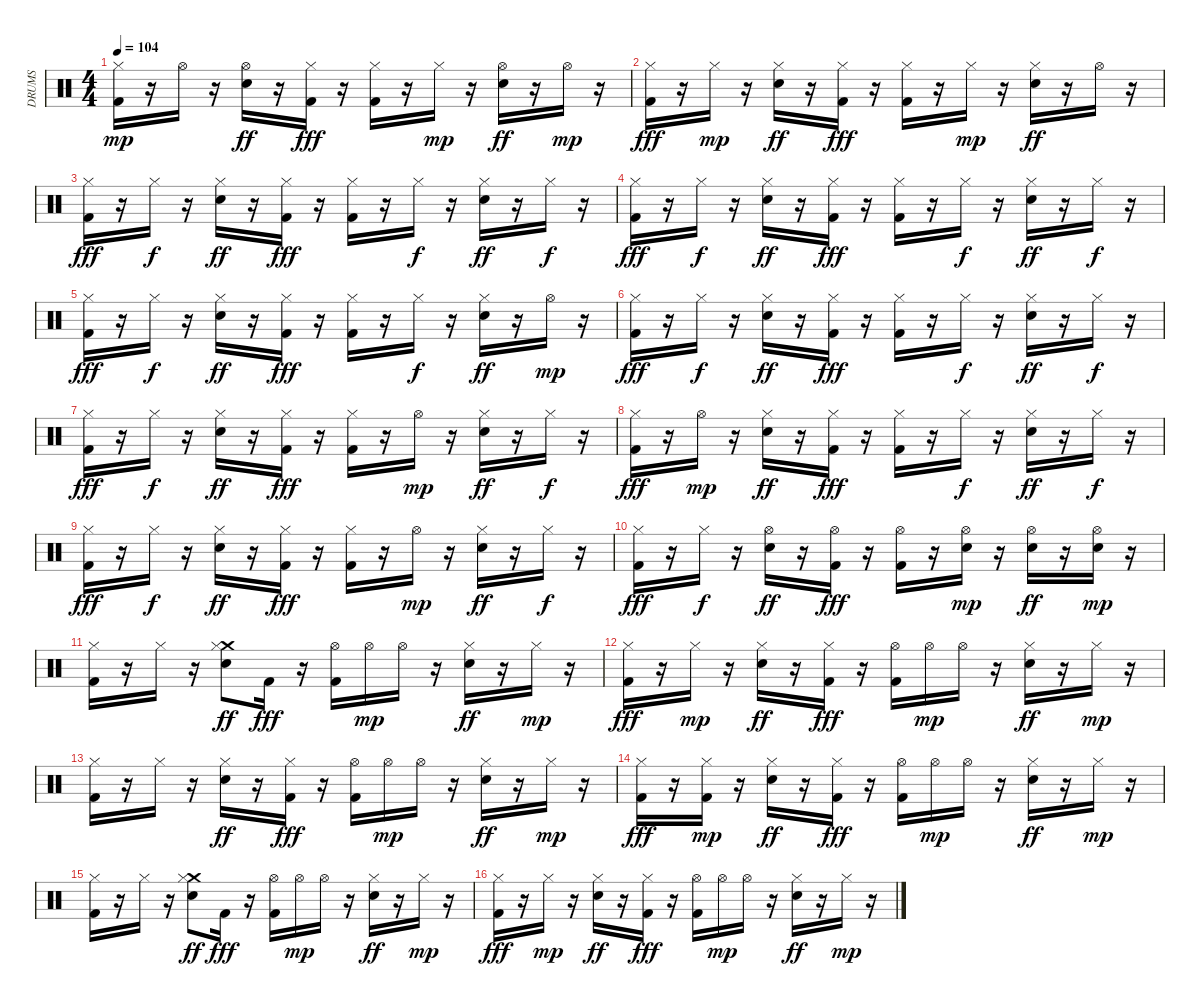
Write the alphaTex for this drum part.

\track ("DRUMS" "DRUMS") {instrument percussion}
\staff {score}
\articulation defaults
\ts (4 4)
\tempo 104
\clef neutral
\ks c
("Kick (hit) 2" "Hi-Hat (closed)").16{dy mp} r.16 "Hi-Hat (open)".16 r.16 ("Hi-Hat (open)" "Snare (hit) 2").16{dy ff} r.16 ("Hi-Hat (closed)" "Kick (hit) 2").16{dy fff} r.16 ("Hi-Hat (closed)" "Kick (hit) 2").16 r.16 "Hi-Hat (closed)".16{dy mp} r.16 ("Hi-Hat (open)" "Snare (hit) 2").16{dy ff} r.16 "Hi-Hat (open)".16{dy mp} r.16 |
("Hi-Hat (closed)" "Kick (hit) 2").16{dy fff} r.16 "Hi-Hat (closed)".16{dy mp} r.16 ("Hi-Hat (closed)" "Snare (hit) 2").16{dy ff} r.16 ("Hi-Hat (closed)" "Kick (hit) 2").16{dy fff} r.16 ("Hi-Hat (closed)" "Kick (hit) 2").16 r.16 "Hi-Hat (closed)".16{dy mp} r.16 ("Hi-Hat (closed)" "Snare (hit) 2").16{dy ff} r.16 "Hi-Hat (open)".16 r.16 |
("Kick (hit) 2" "Hi-Hat (closed)").16{dy fff} r.16 "Hi-Hat (closed)".16{dy f} r.16 ("Hi-Hat (closed)" "Snare (hit) 2").16{dy ff} r.16 ("Hi-Hat (closed)" "Kick (hit) 2").16{dy fff} r.16 ("Hi-Hat (closed)" "Kick (hit) 2").16 r.16 "Hi-Hat (closed)".16{dy f} r.16 ("Hi-Hat (closed)" "Snare (hit) 2").16{dy ff} r.16 "Hi-Hat (closed)".16{dy f} r.16 |
("Hi-Hat (closed)" "Kick (hit) 2").16{dy fff} r.16 "Hi-Hat (closed)".16{dy f} r.16 ("Hi-Hat (closed)" "Snare (hit) 2").16{dy ff} r.16 ("Hi-Hat (closed)" "Kick (hit) 2").16{dy fff} r.16 ("Hi-Hat (closed)" "Kick (hit) 2").16 r.16 "Hi-Hat (closed)".16{dy f} r.16 ("Hi-Hat (closed)" "Snare (hit) 2").16{dy ff} r.16 "Hi-Hat (closed)".16{dy f} r.16 |
("Kick (hit) 2" "Hi-Hat (closed)").16{dy fff} r.16 "Hi-Hat (closed)".16{dy f} r.16 ("Hi-Hat (closed)" "Snare (hit) 2").16{dy ff} r.16 ("Hi-Hat (closed)" "Kick (hit) 2").16{dy fff} r.16 ("Hi-Hat (closed)" "Kick (hit) 2").16 r.16 "Hi-Hat (closed)".16{dy f} r.16 ("Hi-Hat (closed)" "Snare (hit) 2").16{dy ff} r.16 "Hi-Hat (open)".16{dy mp} r.16 |
("Hi-Hat (closed)" "Kick (hit) 2").16{dy fff} r.16 "Hi-Hat (closed)".16{dy f} r.16 ("Hi-Hat (closed)" "Snare (hit) 2").16{dy ff} r.16 ("Hi-Hat (closed)" "Kick (hit) 2").16{dy fff} r.16 ("Hi-Hat (closed)" "Kick (hit) 2").16 r.16 "Hi-Hat (closed)".16{dy f} r.16 ("Hi-Hat (closed)" "Snare (hit) 2").16{dy ff} r.16 "Hi-Hat (closed)".16{dy f} r.16 |
("Kick (hit) 2" "Hi-Hat (closed)").16{dy fff} r.16 "Hi-Hat (closed)".16{dy f} r.16 ("Hi-Hat (closed)" "Snare (hit) 2").16{dy ff} r.16 ("Hi-Hat (closed)" "Kick (hit) 2").16{dy fff} r.16 ("Hi-Hat (closed)" "Kick (hit) 2").16 r.16 "Hi-Hat (open)".16{dy mp} r.16 ("Hi-Hat (closed)" "Snare (hit) 2").16{dy ff} r.16 "Hi-Hat (closed)".16{dy f} r.16 |
("Hi-Hat (closed)" "Kick (hit) 2").16{dy fff} r.16 "Hi-Hat (open)".16{dy mp} r.16 ("Hi-Hat (closed)" "Snare (hit) 2").16{dy ff} r.16 ("Hi-Hat (closed)" "Kick (hit) 2").16{dy fff} r.16 ("Hi-Hat (closed)" "Kick (hit) 2").16 r.16 "Hi-Hat (closed)".16{dy f} r.16 ("Hi-Hat (closed)" "Snare (hit) 2").16{dy ff} r.16 "Hi-Hat (closed)".16{dy f} r.16 |
("Kick (hit) 2" "Hi-Hat (closed)").16{dy fff} r.16 "Hi-Hat (closed)".16{dy f} r.16 ("Hi-Hat (closed)" "Snare (hit) 2").16{dy ff} r.16 ("Hi-Hat (closed)" "Kick (hit) 2").16{dy fff} r.16 ("Hi-Hat (closed)" "Kick (hit) 2").16 r.16 "Hi-Hat (open)".16{dy mp} r.16 ("Hi-Hat (closed)" "Snare (hit) 2").16{dy ff} r.16 "Hi-Hat (closed)".16{dy f} r.16 |
("Hi-Hat (closed)" "Kick (hit) 2").16{dy fff} r.16 "Hi-Hat (closed)".16{dy f} r.16 ("Hi-Hat (open)" "Snare (hit) 2").16{dy ff} r.16 ("Hi-Hat (open)" "Kick (hit) 2").16{dy fff} r.16 ("Hi-Hat (open)" "Kick (hit) 2").16 r.16 ("Snare (hit) 2" "Hi-Hat (open)").16{dy mp} r.16 ("Hi-Hat (open)" "Snare (hit) 2").16{dy ff} r.16 ("Snare (hit) 2" "Hi-Hat (open)").16{dy mp} r.16 |
("Kick (hit) 2" "Hi-Hat (closed)").16 r.16 "Hi-Hat (closed)".16 r.16 ("Crash medium (hit)" "Hi-Hat (closed)" "Snare (hit) 2").8{dy ff} "Kick (hit) 2".16{dy fff} r.16 ("Hi-Hat (open)" "Kick (hit) 2").16 "Hi-Hat (open)".16{dy mp} "Hi-Hat (open)".16 r.16 ("Hi-Hat (closed)" "Snare (hit) 2").16{dy ff} r.16 "Hi-Hat (closed)".16{dy mp} r.16 |
("Hi-Hat (closed)" "Kick (hit) 2").16{dy fff} r.16 "Hi-Hat (closed)".16{dy mp} r.16 ("Hi-Hat (closed)" "Snare (hit) 2").16{dy ff} r.16 ("Hi-Hat (closed)" "Kick (hit) 2").16{dy fff} r.16 ("Hi-Hat (open)" "Kick (hit) 2").16 "Hi-Hat (open)".16{dy mp} "Hi-Hat (open)".16 r.16 ("Hi-Hat (closed)" "Snare (hit) 2").16{dy ff} r.16 "Hi-Hat (closed)".16{dy mp} r.16 |
("Kick (hit) 2" "Hi-Hat (closed)").16 r.16 "Hi-Hat (closed)".16 r.16 ("Hi-Hat (closed)" "Snare (hit) 2").16{dy ff} r.16 ("Hi-Hat (closed)" "Kick (hit) 2").16{dy fff} r.16 ("Hi-Hat (open)" "Kick (hit) 2").16 "Hi-Hat (open)".16{dy mp} "Hi-Hat (open)".16 r.16 ("Hi-Hat (closed)" "Snare (hit) 2").16{dy ff} r.16 "Hi-Hat (closed)".16{dy mp} r.16 |
("Hi-Hat (closed)" "Kick (hit) 2").16{dy fff} r.16 ("Kick (hit) 2" "Hi-Hat (closed)").16{dy mp} r.16 ("Hi-Hat (closed)" "Snare (hit) 2").16{dy ff} r.16 ("Hi-Hat (closed)" "Kick (hit) 2").16{dy fff} r.16 ("Hi-Hat (open)" "Kick (hit) 2").16 "Hi-Hat (open)".16{dy mp} "Hi-Hat (open)".16 r.16 ("Hi-Hat (closed)" "Snare (hit) 2").16{dy ff} r.16 "Hi-Hat (closed)".16{dy mp} r.16 |
("Kick (hit) 2" "Hi-Hat (closed)").16 r.16 "Hi-Hat (closed)".16 r.16 ("Crash medium (hit)" "Hi-Hat (closed)" "Snare (hit) 2").8{dy ff} "Kick (hit) 2".16{dy fff} r.16 ("Hi-Hat (open)" "Kick (hit) 2").16 "Hi-Hat (open)".16{dy mp} "Hi-Hat (open)".16 r.16 ("Hi-Hat (closed)" "Snare (hit) 2").16{dy ff} r.16 "Hi-Hat (closed)".16{dy mp} r.16 |
("Hi-Hat (closed)" "Kick (hit) 2").16{dy fff} r.16 "Hi-Hat (closed)".16{dy mp} r.16 ("Hi-Hat (closed)" "Snare (hit) 2").16{dy ff} r.16 ("Hi-Hat (closed)" "Kick (hit) 2").16{dy fff} r.16 ("Hi-Hat (open)" "Kick (hit) 2").16 "Hi-Hat (open)".16{dy mp} "Hi-Hat (open)".16 r.16 ("Hi-Hat (closed)" "Snare (hit) 2").16{dy ff} r.16 "Hi-Hat (closed)".16{dy mp} r.16
